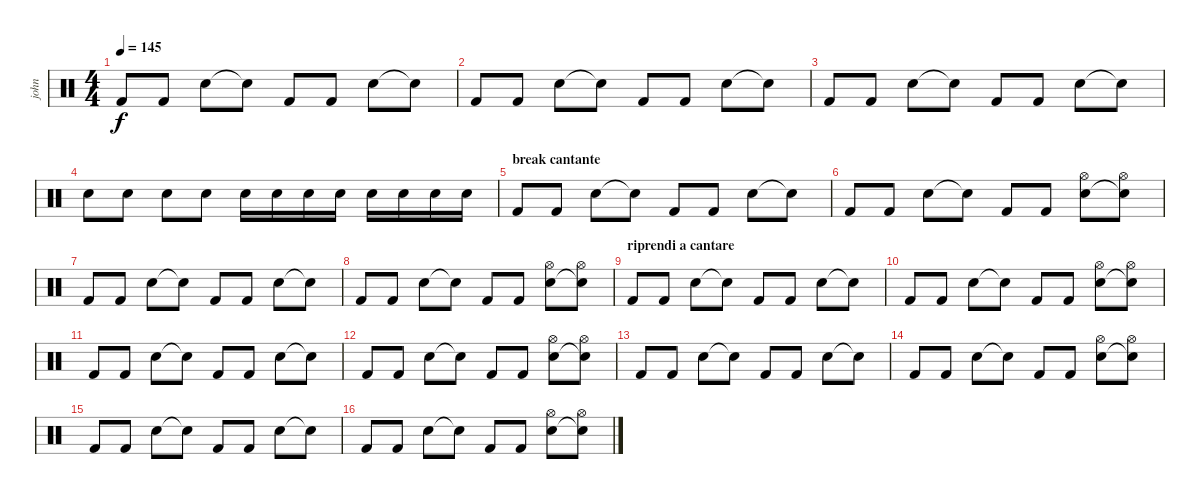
\track ("john" "john") {instrument percussion}
\staff {score}
\articulation defaults
\ts (4 4)
\tempo 145
\clef neutral
\ks c "Kick (hit) 2".8{dy f} "Kick (hit) 2".8 "Snare (hit) 2".8 "Snare (hit)"{t}.8 "Kick (hit) 2".8 "Kick (hit) 2".8 "Snare (hit) 2".8 "Snare (hit)"{t}.8
|
"Kick (hit) 2".8 "Kick (hit) 2".8 "Snare (hit) 2".8 "Snare (hit)"{t}.8 "Kick (hit) 2".8 "Kick (hit) 2".8 "Snare (hit) 2".8 "Snare (hit)"{t}.8 |
"Kick (hit) 2".8 "Kick (hit) 2".8 "Snare (hit) 2".8 "Snare (hit)"{t}.8 "Kick (hit) 2".8 "Kick (hit) 2".8 "Snare (hit) 2".8 "Snare (hit)"{t}.8 |
"Snare (hit) 2".8{volume 9} "Snare (hit) 2".8 "Snare (hit) 2".8{volume 16} "Snare (hit) 2".8 "Snare (hit) 2".16 "Snare (hit) 2".16 "Snare (hit) 2".16 "Snare (hit) 2".16 "Snare (hit) 2".16 "Snare (hit) 2".16 "Snare (hit) 2".16 "Snare (hit) 2".16 |
\section ("" "break cantante")
"Kick (hit) 2".8 "Kick (hit) 2".8 "Snare (hit) 2".8 "Snare (hit)"{t}.8 "Kick (hit) 2".8 "Kick (hit) 2".8 "Snare (hit) 2".8 "Snare (hit)"{t}.8 |
"Kick (hit) 2".8 "Kick (hit) 2".8 "Snare (hit) 2".8 "Snare (hit)"{t}.8 "Kick (hit) 2".8 "Kick (hit) 2".8 ("Snare (hit) 2" "Hi-Hat (open)").8 ("Snare (hit)"{t} "Hi-Hat (open)").8 |
"Kick (hit) 2".8 "Kick (hit) 2".8 "Snare (hit) 2".8 "Snare (hit)"{t}.8 "Kick (hit) 2".8 "Kick (hit) 2".8 "Snare (hit) 2".8 "Snare (hit)"{t}.8 |
"Kick (hit) 2".8 "Kick (hit) 2".8 "Snare (hit) 2".8 "Snare (hit)"{t}.8 "Kick (hit) 2".8 "Kick (hit) 2".8 ("Snare (hit) 2" "Hi-Hat (open)").8 ("Snare (hit)"{t} "Hi-Hat (open)").8 |
\section ("" "riprendi a cantare")
"Kick (hit) 2".8 "Kick (hit) 2".8 "Snare (hit) 2".8 "Snare (hit)"{t}.8 "Kick (hit) 2".8 "Kick (hit) 2".8 "Snare (hit) 2".8 "Snare (hit)"{t}.8 |
"Kick (hit) 2".8 "Kick (hit) 2".8 "Snare (hit) 2".8 "Snare (hit)"{t}.8 "Kick (hit) 2".8 "Kick (hit) 2".8 ("Snare (hit) 2" "Hi-Hat (open)").8 ("Snare (hit)"{t} "Hi-Hat (open)").8 |
"Kick (hit) 2".8 "Kick (hit) 2".8 "Snare (hit) 2".8 "Snare (hit)"{t}.8 "Kick (hit) 2".8 "Kick (hit) 2".8 "Snare (hit) 2".8 "Snare (hit)"{t}.8 |
"Kick (hit) 2".8 "Kick (hit) 2".8 "Snare (hit) 2".8 "Snare (hit)"{t}.8 "Kick (hit) 2".8 "Kick (hit) 2".8 ("Snare (hit) 2" "Hi-Hat (open)").8 ("Snare (hit)"{t} "Hi-Hat (open)").8 |
"Kick (hit) 2".8 "Kick (hit) 2".8 "Snare (hit) 2".8 "Snare (hit)"{t}.8 "Kick (hit) 2".8 "Kick (hit) 2".8 "Snare (hit) 2".8 "Snare (hit)"{t}.8 |
"Kick (hit) 2".8 "Kick (hit) 2".8 "Snare (hit) 2".8 "Snare (hit)"{t}.8 "Kick (hit) 2".8 "Kick (hit) 2".8 ("Snare (hit) 2" "Hi-Hat (open)").8 ("Snare (hit)"{t} "Hi-Hat (open)").8 |
"Kick (hit) 2".8 "Kick (hit) 2".8 "Snare (hit) 2".8 "Snare (hit)"{t}.8 "Kick (hit) 2".8 "Kick (hit) 2".8 "Snare (hit) 2".8 "Snare (hit)"{t}.8 |
"Kick (hit) 2".8 "Kick (hit) 2".8 "Snare (hit) 2".8 "Snare (hit)"{t}.8 "Kick (hit) 2".8 "Kick (hit) 2".8 ("Snare (hit) 2" "Hi-Hat (open)").8 ("Snare (hit)"{t} "Hi-Hat (open)").8
